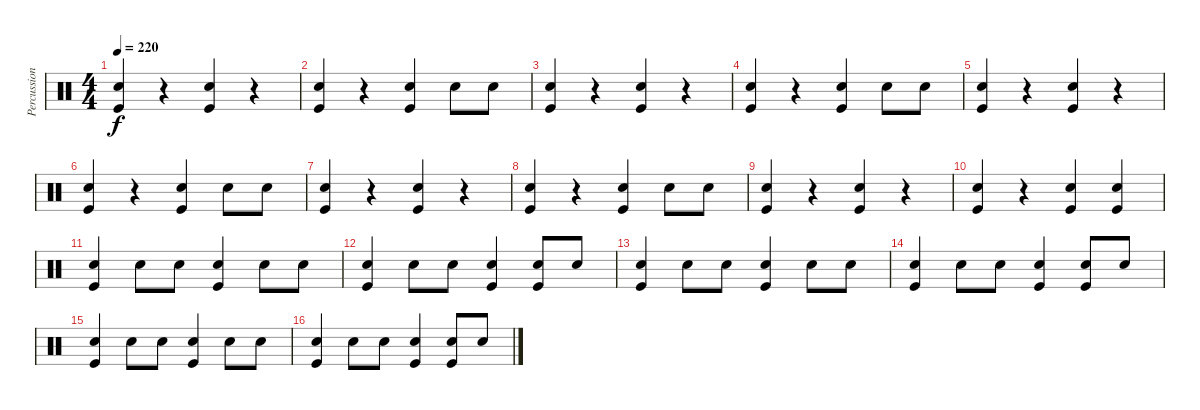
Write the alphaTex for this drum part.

\track ("Percussion" "Percussion") {instrument percussion}
\staff {score}
\articulation defaults
\ts (4 4)
\tempo 220
\clef neutral
\ks c
("Snare (hit) 2" "Kick (hit)").4{dy f} r.4 ("Snare (hit) 2" "Kick (hit)").4 r.4 |
("Snare (hit) 2" "Kick (hit)").4 r.4 ("Snare (hit) 2" "Kick (hit)").4 "Snare (hit) 2".8 "Snare (hit) 2".8 |
("Snare (hit) 2" "Kick (hit)").4 r.4 ("Snare (hit) 2" "Kick (hit)").4 r.4 |
("Snare (hit) 2" "Kick (hit)").4 r.4 ("Snare (hit) 2" "Kick (hit)").4 "Snare (hit) 2".8 "Snare (hit) 2".8 |
("Snare (hit) 2" "Kick (hit)").4 r.4 ("Snare (hit) 2" "Kick (hit)").4 r.4 |
("Snare (hit) 2" "Kick (hit)").4 r.4 ("Snare (hit) 2" "Kick (hit)").4 "Snare (hit) 2".8 "Snare (hit) 2".8 |
("Snare (hit) 2" "Kick (hit)").4 r.4 ("Snare (hit) 2" "Kick (hit)").4 r.4 |
("Snare (hit) 2" "Kick (hit)").4 r.4 ("Snare (hit) 2" "Kick (hit)").4 "Snare (hit) 2".8 "Snare (hit) 2".8 |
("Snare (hit) 2" "Kick (hit)").4 r.4 ("Snare (hit) 2" "Kick (hit)").4 r.4 |
("Snare (hit) 2" "Kick (hit)").4 r.4 ("Snare (hit) 2" "Kick (hit)").4 ("Snare (hit) 2" "Kick (hit)").4 |
("Snare (hit) 2" "Kick (hit)").4 "Snare (hit) 2".8 "Snare (hit) 2".8 ("Snare (hit) 2" "Kick (hit)").4 "Snare (hit) 2".8 "Snare (hit) 2".8 |
("Snare (hit) 2" "Kick (hit)").4 "Snare (hit) 2".8 "Snare (hit) 2".8 ("Snare (hit) 2" "Kick (hit)").4 ("Snare (hit) 2" "Kick (hit)").8 "Snare (hit) 2".8 |
("Snare (hit) 2" "Kick (hit)").4 "Snare (hit) 2".8 "Snare (hit) 2".8 ("Snare (hit) 2" "Kick (hit)").4 "Snare (hit) 2".8 "Snare (hit) 2".8 |
("Snare (hit) 2" "Kick (hit)").4 "Snare (hit) 2".8 "Snare (hit) 2".8 ("Snare (hit) 2" "Kick (hit)").4 ("Snare (hit) 2" "Kick (hit)").8 "Snare (hit) 2".8 |
("Snare (hit) 2" "Kick (hit)").4 "Snare (hit) 2".8 "Snare (hit) 2".8 ("Snare (hit) 2" "Kick (hit)").4 "Snare (hit) 2".8 "Snare (hit) 2".8 |
("Snare (hit) 2" "Kick (hit)").4 "Snare (hit) 2".8 "Snare (hit) 2".8 ("Snare (hit) 2" "Kick (hit)").4 ("Snare (hit) 2" "Kick (hit)").8 "Snare (hit) 2".8
